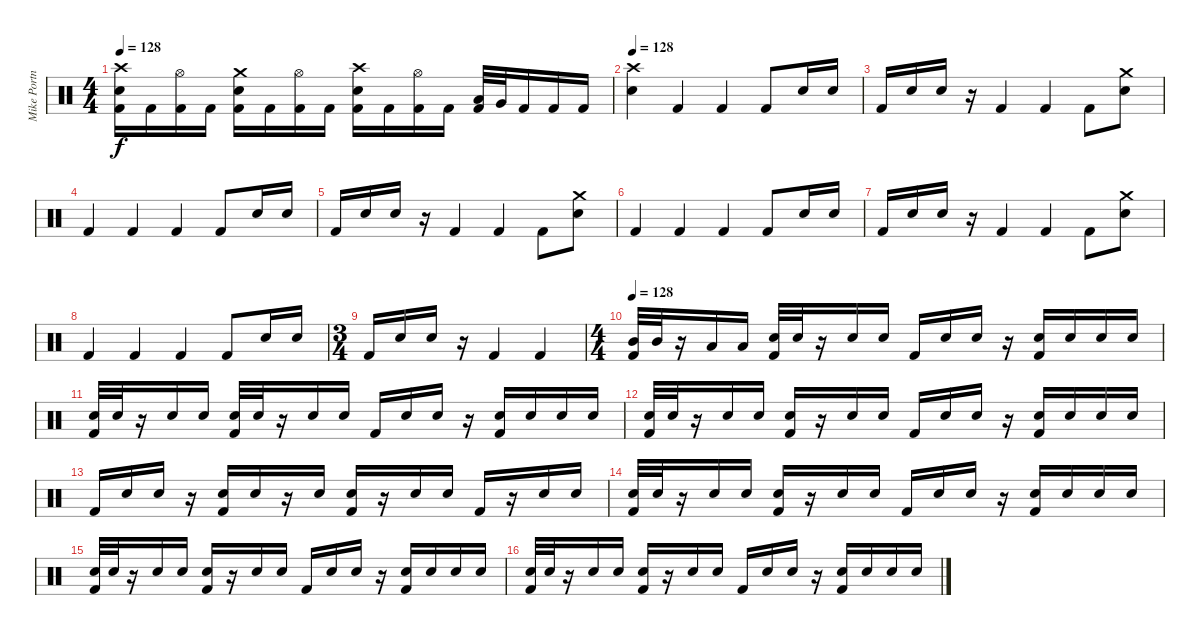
\track ("Mike Portnoy" "Mike Portn") {instrument percussion}
\staff {score}
\articulation defaults
\ts (4 4)
\tempo 128
\clef neutral
\ks c
("Crash high (hit)" "Snare (hit) 2" "Kick (hit) 2").16{dy f} "Kick (hit) 2".16 ("Hi-Hat (open)" "Kick (hit) 2").16 "Kick (hit) 2".16 ("Crash medium (hit)" "Snare (hit) 2" "Kick (hit) 2").16 "Kick (hit) 2".16 ("Hi-Hat (open)" "Kick (hit) 2").16 "Kick (hit) 2".16 ("Crash high (hit)" "Snare (hit) 2" "Kick (hit) 2").16 "Kick (hit) 2".16 ("Hi-Hat (open)" "Kick (hit) 2").16 "Kick (hit) 2".16 ("Low Floor Tom (hit)" "Kick (hit) 2").32 "Very Low Tom (hit)".32 "Kick (hit) 2".16 "Kick (hit) 2".16 "Kick (hit) 2".16 |
\tempo 128
("Crash high (hit)" "Snare (hit) 2").4 "Kick (hit) 2".4 "Kick (hit) 2".4 "Kick (hit) 2".8 "Snare (hit) 2".16 "Snare (hit) 2".16 |
"Kick (hit) 2".16 "Snare (hit) 2".16 "Snare (hit) 2".16 r.16 "Kick (hit) 2".4 "Kick (hit) 2".4 "Kick (hit) 2".8 ("Crash medium (hit)" "Snare (hit) 2").8 |
"Kick (hit) 2".4 "Kick (hit) 2".4 "Kick (hit) 2".4 "Kick (hit) 2".8 "Snare (hit) 2".16 "Snare (hit) 2".16 |
"Kick (hit) 2".16 "Snare (hit) 2".16 "Snare (hit) 2".16 r.16 "Kick (hit) 2".4 "Kick (hit) 2".4 "Kick (hit) 2".8 ("Crash medium (hit)" "Snare (hit) 2").8 |
"Kick (hit) 2".4 "Kick (hit) 2".4 "Kick (hit) 2".4 "Kick (hit) 2".8 "Snare (hit) 2".16 "Snare (hit) 2".16 |
"Kick (hit) 2".16 "Snare (hit) 2".16 "Snare (hit) 2".16 r.16 "Kick (hit) 2".4 "Kick (hit) 2".4 "Kick (hit) 2".8 ("Crash medium (hit)" "Snare (hit) 2").8 |
"Kick (hit) 2".4 "Kick (hit) 2".4 "Kick (hit) 2".4 "Kick (hit) 2".8 "Snare (hit) 2".16 "Snare (hit) 2".16 |
\ts (3 4)
"Kick (hit) 2".16 "Snare (hit) 2".16 "Snare (hit) 2".16 r.16 "Kick (hit) 2".4 "Kick (hit) 2".4 |
\ts (4 4)
\tempo 128
("Mid Tom (hit)" "Kick (hit) 2").32 "Mid Tom (hit)".32 r.16 "Low Tom (hit)".16 "Low Tom (hit)".16 ("Snare (hit) 2" "Kick (hit) 2").32 "Snare (hit) 2".32 r.16 "Snare (hit) 2".16 "Snare (hit) 2".16 "Kick (hit) 2".16 "Snare (hit) 2".16 "Snare (hit) 2".16 r.16 ("Snare (hit) 2" "Kick (hit) 2").16 "Snare (hit) 2".16 "Snare (hit) 2".16 "Snare (hit) 2".16 |
("Snare (hit) 2" "Kick (hit) 2").32 "Snare (hit) 2".32 r.16 "Snare (hit) 2".16 "Snare (hit) 2".16 ("Snare (hit) 2" "Kick (hit) 2").32 "Snare (hit) 2".32 r.16 "Snare (hit) 2".16 "Snare (hit) 2".16 "Kick (hit) 2".16 "Snare (hit) 2".16 "Snare (hit) 2".16 r.16 ("Snare (hit) 2" "Kick (hit) 2").16 "Snare (hit) 2".16 "Snare (hit) 2".16 "Snare (hit) 2".16 |
("Snare (hit) 2" "Kick (hit) 2").32 "Snare (hit) 2".32 r.16 "Snare (hit) 2".16 "Snare (hit) 2".16 ("Snare (hit) 2" "Kick (hit) 2").16 r.16 "Snare (hit) 2".16 "Snare (hit) 2".16 "Kick (hit) 2".16 "Snare (hit) 2".16 "Snare (hit) 2".16 r.16 ("Snare (hit) 2" "Kick (hit) 2").16 "Snare (hit) 2".16 "Snare (hit) 2".16 "Snare (hit) 2".16 |
"Kick (hit) 2".16 "Snare (hit) 2".16 "Snare (hit) 2".16 r.16 ("Snare (hit) 2" "Kick (hit) 2").16 "Snare (hit) 2".16 r.16 "Snare (hit) 2".16 ("Snare (hit) 2" "Kick (hit) 2").16 r.16 "Snare (hit) 2".16 "Snare (hit) 2".16 "Kick (hit) 2".16 r.16 "Snare (hit) 2".16 "Snare (hit) 2".16 |
("Snare (hit) 2" "Kick (hit) 2").32 "Snare (hit) 2".32 r.16 "Snare (hit) 2".16 "Snare (hit) 2".16 ("Snare (hit) 2" "Kick (hit) 2").16 r.16 "Snare (hit) 2".16 "Snare (hit) 2".16 "Kick (hit) 2".16 "Snare (hit) 2".16 "Snare (hit) 2".16 r.16 ("Snare (hit) 2" "Kick (hit) 2").16 "Snare (hit) 2".16 "Snare (hit) 2".16 "Snare (hit) 2".16 |
("Snare (hit) 2" "Kick (hit) 2").32 "Snare (hit) 2".32 r.16 "Snare (hit) 2".16 "Snare (hit) 2".16 ("Snare (hit) 2" "Kick (hit) 2").16 r.16 "Snare (hit) 2".16 "Snare (hit) 2".16 "Kick (hit) 2".16 "Snare (hit) 2".16 "Snare (hit) 2".16 r.16 ("Snare (hit) 2" "Kick (hit) 2").16 "Snare (hit) 2".16 "Snare (hit) 2".16 "Snare (hit) 2".16 |
("Snare (hit) 2" "Kick (hit) 2").32 "Snare (hit) 2".32 r.16 "Snare (hit) 2".16 "Snare (hit) 2".16 ("Snare (hit) 2" "Kick (hit) 2").16 r.16 "Snare (hit) 2".16 "Snare (hit) 2".16 "Kick (hit) 2".16 "Snare (hit) 2".16 "Snare (hit) 2".16 r.16 ("Snare (hit) 2" "Kick (hit) 2").16 "Snare (hit) 2".16 "Snare (hit) 2".16 "Snare (hit) 2".16
